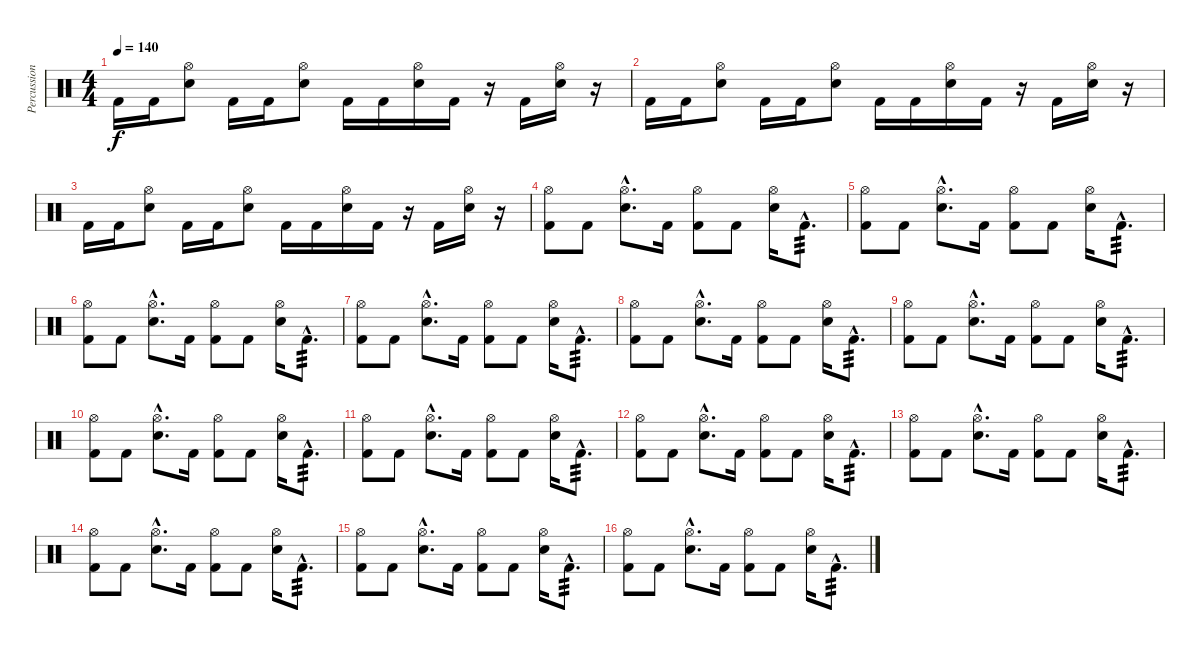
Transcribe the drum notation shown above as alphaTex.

\track ("Percussions" "Percussion") {instrument percussion}
\staff {score}
\articulation defaults
\ts (4 4)
\tempo 140
\clef neutral
\ks c "Kick (hit) 2".16{dy f} "Kick (hit) 2".16
("Hi-Hat (open)" "Snare (hit) 2").8 "Kick (hit) 2".16 "Kick (hit) 2".16 ("Hi-Hat (open)" "Snare (hit) 2").8 "Kick (hit) 2".16 "Kick (hit) 2".16 ("Hi-Hat (open)" "Snare (hit) 2").16 "Kick (hit) 2".16 r.16 "Kick (hit) 2".16 ("Hi-Hat (open)" "Snare (hit) 2").16 r.16 |
"Kick (hit) 2".16 "Kick (hit) 2".16 ("Hi-Hat (open)" "Snare (hit) 2").8 "Kick (hit) 2".16 "Kick (hit) 2".16 ("Hi-Hat (open)" "Snare (hit) 2").8 "Kick (hit) 2".16 "Kick (hit) 2".16 ("Hi-Hat (open)" "Snare (hit) 2").16 "Kick (hit) 2".16 r.16 "Kick (hit) 2".16 ("Hi-Hat (open)" "Snare (hit) 2").16 r.16 |
"Kick (hit) 2".16 "Kick (hit) 2".16 ("Hi-Hat (open)" "Snare (hit) 2").8 "Kick (hit) 2".16 "Kick (hit) 2".16 ("Hi-Hat (open)" "Snare (hit) 2").8 "Kick (hit) 2".16 "Kick (hit) 2".16 ("Hi-Hat (open)" "Snare (hit) 2").16 "Kick (hit) 2".16 r.16 "Kick (hit) 2".16 ("Hi-Hat (open)" "Snare (hit) 2").16 r.16 |
("Hi-Hat (open)" "Kick (hit) 2").8 "Kick (hit) 2".8 ("Hi-Hat (open)"{hac} "Electric Snare (hit)"{hac}).8{d} "Kick (hit) 2".16 ("Hi-Hat (open)" "Kick (hit) 2").8 "Kick (hit) 2".8 ("Hi-Hat (open)" "Electric Snare (hit)").16 "Kick (hit) 2"{hac}.8{d tp 3} |
("Hi-Hat (open)" "Kick (hit) 2").8 "Kick (hit) 2".8 ("Hi-Hat (open)"{hac} "Electric Snare (hit)"{hac}).8{d} "Kick (hit) 2".16 ("Hi-Hat (open)" "Kick (hit) 2").8 "Kick (hit) 2".8 ("Hi-Hat (open)" "Electric Snare (hit)").16 "Kick (hit) 2"{hac}.8{d tp 3} |
("Hi-Hat (open)" "Kick (hit) 2").8 "Kick (hit) 2".8 ("Hi-Hat (open)"{hac} "Electric Snare (hit)"{hac}).8{d} "Kick (hit) 2".16 ("Hi-Hat (open)" "Kick (hit) 2").8 "Kick (hit) 2".8 ("Hi-Hat (open)" "Electric Snare (hit)").16 "Kick (hit) 2"{hac}.8{d tp 3} |
("Hi-Hat (open)" "Kick (hit) 2").8 "Kick (hit) 2".8 ("Hi-Hat (open)"{hac} "Electric Snare (hit)"{hac}).8{d} "Kick (hit) 2".16 ("Hi-Hat (open)" "Kick (hit) 2").8 "Kick (hit) 2".8 ("Hi-Hat (open)" "Electric Snare (hit)").16 "Kick (hit) 2"{hac}.8{d tp 3} |
("Hi-Hat (open)" "Kick (hit) 2").8 "Kick (hit) 2".8 ("Hi-Hat (open)"{hac} "Electric Snare (hit)"{hac}).8{d} "Kick (hit) 2".16 ("Hi-Hat (open)" "Kick (hit) 2").8 "Kick (hit) 2".8 ("Hi-Hat (open)" "Electric Snare (hit)").16 "Kick (hit) 2"{hac}.8{d tp 3} |
("Hi-Hat (open)" "Kick (hit) 2").8 "Kick (hit) 2".8 ("Hi-Hat (open)"{hac} "Electric Snare (hit)"{hac}).8{d} "Kick (hit) 2".16 ("Hi-Hat (open)" "Kick (hit) 2").8 "Kick (hit) 2".8 ("Hi-Hat (open)" "Electric Snare (hit)").16 "Kick (hit) 2"{hac}.8{d tp 3} |
("Hi-Hat (open)" "Kick (hit) 2").8 "Kick (hit) 2".8 ("Hi-Hat (open)"{hac} "Electric Snare (hit)"{hac}).8{d} "Kick (hit) 2".16 ("Hi-Hat (open)" "Kick (hit) 2").8 "Kick (hit) 2".8 ("Hi-Hat (open)" "Electric Snare (hit)").16 "Kick (hit) 2"{hac}.8{d tp 3} |
("Hi-Hat (open)" "Kick (hit) 2").8 "Kick (hit) 2".8 ("Hi-Hat (open)"{hac} "Electric Snare (hit)"{hac}).8{d} "Kick (hit) 2".16 ("Hi-Hat (open)" "Kick (hit) 2").8 "Kick (hit) 2".8 ("Hi-Hat (open)" "Electric Snare (hit)").16 "Kick (hit) 2"{hac}.8{d tp 3} |
("Hi-Hat (open)" "Kick (hit) 2").8 "Kick (hit) 2".8 ("Hi-Hat (open)"{hac} "Electric Snare (hit)"{hac}).8{d} "Kick (hit) 2".16 ("Hi-Hat (open)" "Kick (hit) 2").8 "Kick (hit) 2".8 ("Hi-Hat (open)" "Electric Snare (hit)").16 "Kick (hit) 2"{hac}.8{d tp 3} |
("Hi-Hat (open)" "Kick (hit) 2").8 "Kick (hit) 2".8 ("Hi-Hat (open)"{hac} "Electric Snare (hit)"{hac}).8{d} "Kick (hit) 2".16 ("Hi-Hat (open)" "Kick (hit) 2").8 "Kick (hit) 2".8 ("Hi-Hat (open)" "Electric Snare (hit)").16 "Kick (hit) 2"{hac}.8{d tp 3} |
("Hi-Hat (open)" "Kick (hit) 2").8 "Kick (hit) 2".8 ("Hi-Hat (open)"{hac} "Electric Snare (hit)"{hac}).8{d} "Kick (hit) 2".16 ("Hi-Hat (open)" "Kick (hit) 2").8 "Kick (hit) 2".8 ("Hi-Hat (open)" "Electric Snare (hit)").16 "Kick (hit) 2"{hac}.8{d tp 3} |
("Hi-Hat (open)" "Kick (hit) 2").8 "Kick (hit) 2".8 ("Hi-Hat (open)"{hac} "Electric Snare (hit)"{hac}).8{d} "Kick (hit) 2".16 ("Hi-Hat (open)" "Kick (hit) 2").8 "Kick (hit) 2".8 ("Hi-Hat (open)" "Electric Snare (hit)").16 "Kick (hit) 2"{hac}.8{d tp 3} |
("Hi-Hat (open)" "Kick (hit) 2").8 "Kick (hit) 2".8 ("Hi-Hat (open)"{hac} "Electric Snare (hit)"{hac}).8{d} "Kick (hit) 2".16 ("Hi-Hat (open)" "Kick (hit) 2").8 "Kick (hit) 2".8 ("Hi-Hat (open)" "Electric Snare (hit)").16 "Kick (hit) 2"{hac}.8{d tp 3}
